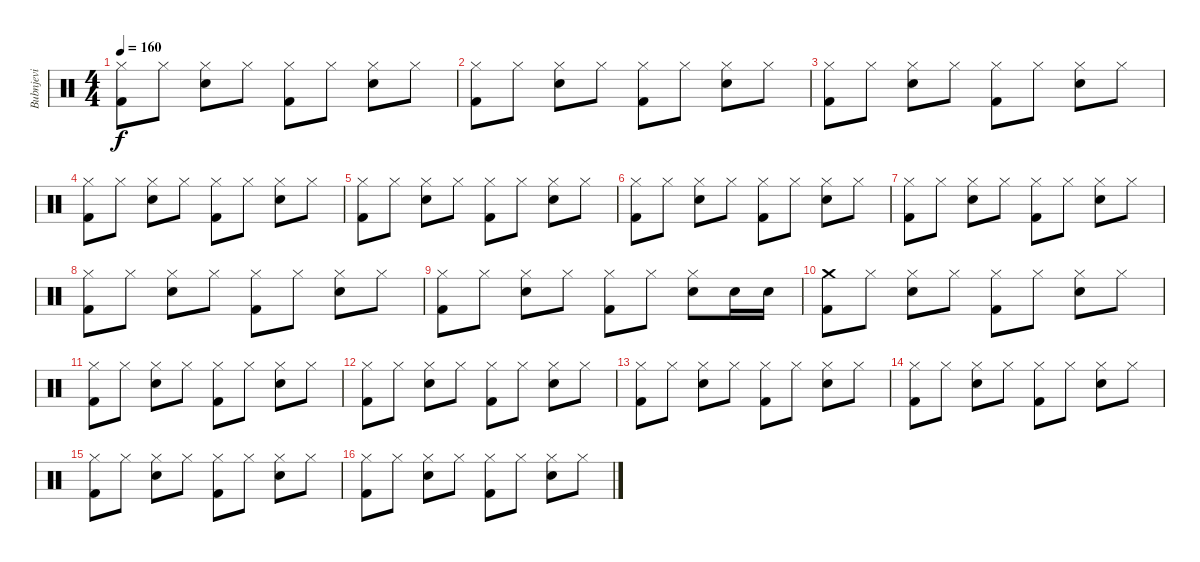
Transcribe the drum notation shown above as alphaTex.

\track ("Bubnjevi" "Bubnjevi") {instrument percussion}
\staff {score}
\articulation defaults
\ts (4 4)
\tempo 160
\clef neutral
\ks c
("Hi-Hat (closed)" "Kick (hit) 2").8{dy f} "Hi-Hat (closed)".8 ("Hi-Hat (closed)" "Snare (hit) 2").8 "Hi-Hat (closed)".8 ("Hi-Hat (closed)" "Kick (hit) 2").8 "Hi-Hat (closed)".8 ("Hi-Hat (closed)" "Snare (hit) 2").8 "Hi-Hat (closed)".8 |
("Hi-Hat (closed)" "Kick (hit) 2").8 "Hi-Hat (closed)".8 ("Hi-Hat (closed)" "Snare (hit) 2").8 "Hi-Hat (closed)".8 ("Hi-Hat (closed)" "Kick (hit) 2").8 "Hi-Hat (closed)".8 ("Hi-Hat (closed)" "Snare (hit) 2").8 "Hi-Hat (closed)".8 |
("Hi-Hat (closed)" "Kick (hit) 2").8 "Hi-Hat (closed)".8 ("Hi-Hat (closed)" "Snare (hit) 2").8 "Hi-Hat (closed)".8 ("Hi-Hat (closed)" "Kick (hit) 2").8 "Hi-Hat (closed)".8 ("Hi-Hat (closed)" "Snare (hit) 2").8 "Hi-Hat (closed)".8 |
("Hi-Hat (closed)" "Kick (hit) 2").8 "Hi-Hat (closed)".8 ("Hi-Hat (closed)" "Snare (hit) 2").8 "Hi-Hat (closed)".8 ("Hi-Hat (closed)" "Kick (hit) 2").8 "Hi-Hat (closed)".8 ("Hi-Hat (closed)" "Snare (hit) 2").8 "Hi-Hat (closed)".8 |
("Hi-Hat (closed)" "Kick (hit) 2").8 "Hi-Hat (closed)".8 ("Hi-Hat (closed)" "Snare (hit) 2").8 "Hi-Hat (closed)".8 ("Hi-Hat (closed)" "Kick (hit) 2").8 "Hi-Hat (closed)".8 ("Hi-Hat (closed)" "Snare (hit) 2").8 "Hi-Hat (closed)".8 |
("Hi-Hat (closed)" "Kick (hit) 2").8 "Hi-Hat (closed)".8 ("Hi-Hat (closed)" "Snare (hit) 2").8 "Hi-Hat (closed)".8 ("Hi-Hat (closed)" "Kick (hit) 2").8 "Hi-Hat (closed)".8 ("Hi-Hat (closed)" "Snare (hit) 2").8 "Hi-Hat (closed)".8 |
("Hi-Hat (closed)" "Kick (hit) 2").8 "Hi-Hat (closed)".8 ("Hi-Hat (closed)" "Snare (hit) 2").8 "Hi-Hat (closed)".8 ("Hi-Hat (closed)" "Kick (hit) 2").8 "Hi-Hat (closed)".8 ("Hi-Hat (closed)" "Snare (hit) 2").8 "Hi-Hat (closed)".8 |
("Hi-Hat (closed)" "Kick (hit) 2").8 "Hi-Hat (closed)".8 ("Hi-Hat (closed)" "Snare (hit) 2").8 "Hi-Hat (closed)".8 ("Hi-Hat (closed)" "Kick (hit) 2").8 "Hi-Hat (closed)".8 ("Hi-Hat (closed)" "Snare (hit) 2").8 "Hi-Hat (closed)".8 |
("Hi-Hat (closed)" "Kick (hit) 2").8 "Hi-Hat (closed)".8 ("Hi-Hat (closed)" "Snare (hit) 2").8 "Hi-Hat (closed)".8 ("Hi-Hat (closed)" "Kick (hit) 2").8 "Hi-Hat (closed)".8 ("Hi-Hat (closed)" "Snare (hit) 2").8 "Snare (hit) 2".16 "Snare (hit) 2".16 |
("Crash medium (hit)" "Kick (hit) 2").8 "Hi-Hat (closed)".8 ("Hi-Hat (closed)" "Snare (hit) 2").8 "Hi-Hat (closed)".8 ("Hi-Hat (closed)" "Kick (hit) 2").8 "Hi-Hat (closed)".8 ("Hi-Hat (closed)" "Snare (hit) 2").8 "Hi-Hat (closed)".8 |
("Hi-Hat (closed)" "Kick (hit) 2").8 "Hi-Hat (closed)".8 ("Hi-Hat (closed)" "Snare (hit) 2").8 "Hi-Hat (closed)".8 ("Hi-Hat (closed)" "Kick (hit) 2").8 "Hi-Hat (closed)".8 ("Hi-Hat (closed)" "Snare (hit) 2").8 "Hi-Hat (closed)".8 |
("Hi-Hat (closed)" "Kick (hit) 2").8 "Hi-Hat (closed)".8 ("Hi-Hat (closed)" "Snare (hit) 2").8 "Hi-Hat (closed)".8 ("Hi-Hat (closed)" "Kick (hit) 2").8 "Hi-Hat (closed)".8 ("Hi-Hat (closed)" "Snare (hit) 2").8 "Hi-Hat (closed)".8 |
("Hi-Hat (closed)" "Kick (hit) 2").8 "Hi-Hat (closed)".8 ("Hi-Hat (closed)" "Snare (hit) 2").8 "Hi-Hat (closed)".8 ("Hi-Hat (closed)" "Kick (hit) 2").8 "Hi-Hat (closed)".8 ("Hi-Hat (closed)" "Snare (hit) 2").8 "Hi-Hat (closed)".8 |
("Hi-Hat (closed)" "Kick (hit) 2").8 "Hi-Hat (closed)".8 ("Hi-Hat (closed)" "Snare (hit) 2").8 "Hi-Hat (closed)".8 ("Hi-Hat (closed)" "Kick (hit) 2").8 "Hi-Hat (closed)".8 ("Hi-Hat (closed)" "Snare (hit) 2").8 "Hi-Hat (closed)".8 |
("Hi-Hat (closed)" "Kick (hit) 2").8 "Hi-Hat (closed)".8 ("Hi-Hat (closed)" "Snare (hit) 2").8 "Hi-Hat (closed)".8 ("Hi-Hat (closed)" "Kick (hit) 2").8 "Hi-Hat (closed)".8 ("Hi-Hat (closed)" "Snare (hit) 2").8 "Hi-Hat (closed)".8 |
("Hi-Hat (closed)" "Kick (hit) 2").8 "Hi-Hat (closed)".8 ("Hi-Hat (closed)" "Snare (hit) 2").8 "Hi-Hat (closed)".8 ("Hi-Hat (closed)" "Kick (hit) 2").8 "Hi-Hat (closed)".8 ("Hi-Hat (closed)" "Snare (hit) 2").8 "Hi-Hat (closed)".8
